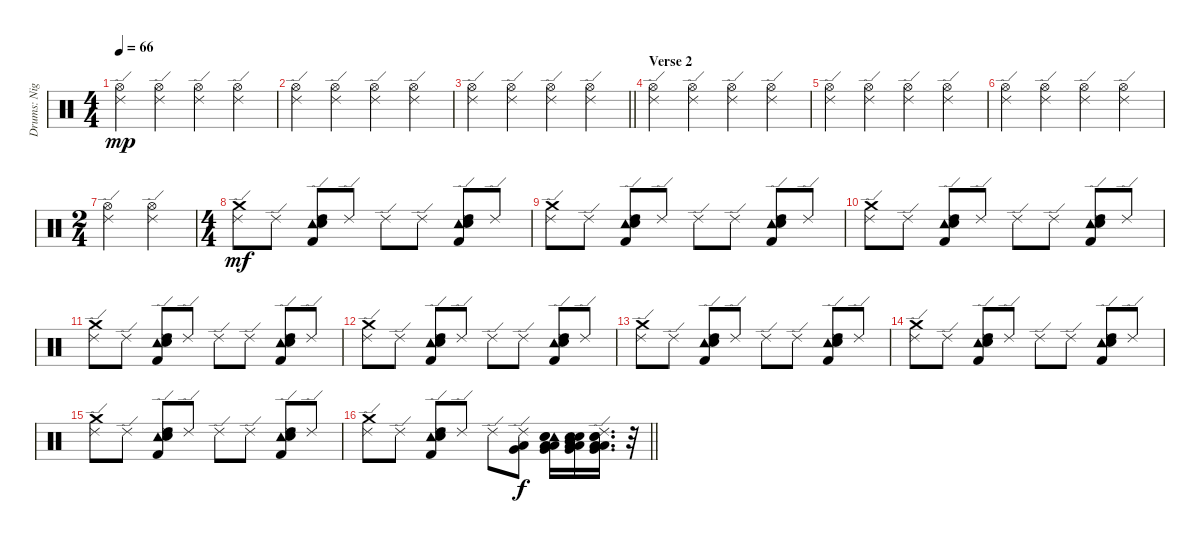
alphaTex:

\track ("Drums: Nigel Olsson" "Drums: Nig") {instrument percussion}
\staff {score}
\articulation defaults
\ts (4 4)
\tempo 66
\clef neutral
\ks c
("Hi-Hat (open)" "Ride (edge) 2").4{dy mp} ("Hi-Hat (open)" "Ride (edge) 2").4 ("Hi-Hat (open)" "Ride (edge) 2").4 ("Hi-Hat (open)" "Ride (edge) 2").4 |
("Hi-Hat (open)" "Ride (edge) 2").4 ("Hi-Hat (open)" "Ride (edge) 2").4 ("Hi-Hat (open)" "Ride (edge) 2").4 ("Hi-Hat (open)" "Ride (edge) 2").4 |
\barLineRight lightlight
("Hi-Hat (open)" "Ride (edge) 2").4 ("Hi-Hat (open)" "Ride (edge) 2").4 ("Hi-Hat (open)" "Ride (edge) 2").4 ("Hi-Hat (open)" "Ride (edge) 2").4 |
\section ("" "Verse 2")
("Hi-Hat (open)" "Ride (edge) 2").4 ("Hi-Hat (open)" "Ride (edge) 2").4 ("Hi-Hat (open)" "Ride (edge) 2").4 ("Hi-Hat (open)" "Ride (edge) 2").4 |
("Hi-Hat (open)" "Ride (edge) 2").4 ("Hi-Hat (open)" "Ride (edge) 2").4 ("Hi-Hat (open)" "Ride (edge) 2").4 ("Hi-Hat (open)" "Ride (edge) 2").4 |
("Hi-Hat (open)" "Ride (edge) 2").4 ("Hi-Hat (open)" "Ride (edge) 2").4 ("Hi-Hat (open)" "Ride (edge) 2").4 ("Hi-Hat (open)" "Ride (edge) 2").4 |
\ts (2 4)
("Hi-Hat (open)" "Ride (edge) 2").4 ("Hi-Hat (open)" "Ride (edge) 2").4 |
\ts (4 4)
("Ride (edge) 2" "Crash medium (hit)").8{dy mf} "Ride (edge) 2".8 ("Ride (edge) 2" "Tambourine (hit)" "Snare (hit) 2" "High Tom (hit)" "Kick (hit) 2").8 "Ride (edge) 2".8 "Ride (edge) 2".8 "Ride (edge) 2".8 ("Ride (edge) 2" "Tambourine (hit)" "Snare (hit) 2" "High Tom (hit)" "Kick (hit) 2").8 "Ride (edge) 2".8 |
("Ride (edge) 2" "Crash medium (hit)").8 "Ride (edge) 2".8 ("Ride (edge) 2" "Tambourine (hit)" "Snare (hit) 2" "High Tom (hit)" "Kick (hit) 2").8 "Ride (edge) 2".8 "Ride (edge) 2".8 "Ride (edge) 2".8 ("Ride (edge) 2" "Tambourine (hit)" "Snare (hit) 2" "High Tom (hit)" "Kick (hit) 2").8 "Ride (edge) 2".8 |
("Ride (edge) 2" "Crash medium (hit)").8 "Ride (edge) 2".8 ("Ride (edge) 2" "Tambourine (hit)" "Snare (hit) 2" "High Tom (hit)" "Kick (hit) 2").8 "Ride (edge) 2".8 "Ride (edge) 2".8 "Ride (edge) 2".8 ("Ride (edge) 2" "Tambourine (hit)" "Snare (hit) 2" "High Tom (hit)" "Kick (hit) 2").8 "Ride (edge) 2".8 |
("Ride (edge) 2" "Crash medium (hit)").8 "Ride (edge) 2".8 ("Ride (edge) 2" "Tambourine (hit)" "Snare (hit) 2" "High Tom (hit)" "Kick (hit) 2").8 "Ride (edge) 2".8 "Ride (edge) 2".8 "Ride (edge) 2".8 ("Ride (edge) 2" "Tambourine (hit)" "Snare (hit) 2" "High Tom (hit)" "Kick (hit) 2").8 "Ride (edge) 2".8 |
("Ride (edge) 2" "Crash medium (hit)").8 "Ride (edge) 2".8 ("Ride (edge) 2" "Tambourine (hit)" "Snare (hit) 2" "High Tom (hit)" "Kick (hit) 2").8 "Ride (edge) 2".8 "Ride (edge) 2".8 "Ride (edge) 2".8 ("Ride (edge) 2" "Tambourine (hit)" "Snare (hit) 2" "High Tom (hit)" "Kick (hit) 2").8 "Ride (edge) 2".8 |
("Ride (edge) 2" "Crash medium (hit)").8 "Ride (edge) 2".8 ("Ride (edge) 2" "Tambourine (hit)" "Snare (hit) 2" "High Tom (hit)" "Kick (hit) 2").8 "Ride (edge) 2".8 "Ride (edge) 2".8 "Ride (edge) 2".8 ("Ride (edge) 2" "Tambourine (hit)" "Snare (hit) 2" "High Tom (hit)" "Kick (hit) 2").8 "Ride (edge) 2".8 |
("Ride (edge) 2" "Crash medium (hit)").8 "Ride (edge) 2".8 ("Ride (edge) 2" "Tambourine (hit)" "Snare (hit) 2" "High Tom (hit)" "Kick (hit) 2").8 "Ride (edge) 2".8 "Ride (edge) 2".8 "Ride (edge) 2".8 ("Ride (edge) 2" "Tambourine (hit)" "Snare (hit) 2" "High Tom (hit)" "Kick (hit) 2").8 "Ride (edge) 2".8 |
("Ride (edge) 2" "Crash medium (hit)").8 "Ride (edge) 2".8 ("Ride (edge) 2" "Tambourine (hit)" "Snare (hit) 2" "High Tom (hit)" "Kick (hit) 2").8 "Ride (edge) 2".8 "Ride (edge) 2".8 "Ride (edge) 2".8 ("Ride (edge) 2" "Tambourine (hit)" "Snare (hit) 2" "High Tom (hit)" "Kick (hit) 2").8 "Ride (edge) 2".8 |
\barLineRight lightlight
("Ride (edge) 2" "Crash medium (hit)").8 "Ride (edge) 2".8 ("Ride (edge) 2" "Tambourine (hit)" "Snare (hit) 2" "High Tom (hit)" "Kick (hit) 2").8 "Ride (edge) 2".8 "Ride (edge) 2".8 ("Very Low Tom (hit)" "Low Floor Tom (hit)" "Ride (edge) 2").8{dy f} ("Tambourine (hit)" "Snare (hit) 2" "Electric Snare (hit)" "Low Floor Tom (hit)" "Low Tom (hit)" "Very Low Tom (hit)").16 ("Electric Snare (hit)" "Snare (hit) 2" "Low Floor Tom (hit)" "Low Tom (hit)" "Very Low Tom (hit)" "Mid Tom (hit)").16 ("Snare (hit) 2" "Electric Snare (hit)" "Low Floor Tom (hit)" "Low Tom (hit)" "Very Low Tom (hit)" "Ride (edge) 2").16{d} r.32
